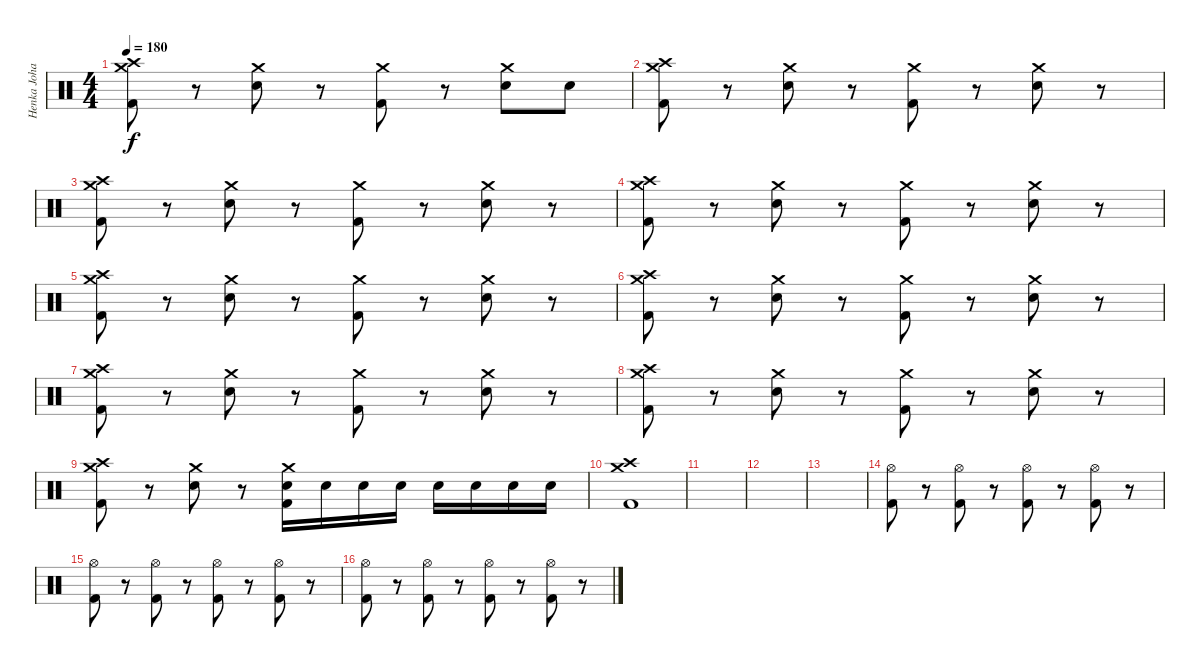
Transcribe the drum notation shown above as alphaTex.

\track ("Henka Johansson" "Henka Joha") {instrument percussion}
\staff {score}
\articulation defaults
\ts (4 4)
\tempo 180
\clef neutral
\ks c
("Crash medium (hit)" "Crash high (hit)" "Kick (hit) 2").8{dy f} r.8 ("Crash medium (hit)" "Snare (hit) 2").8 r.8 ("Crash medium (hit)" "Kick (hit) 2").8 r.8 ("Crash medium (hit)" "Snare (hit) 2").8 "Snare (hit) 2".8 |
("Crash medium (hit)" "Crash high (hit)" "Kick (hit) 2").8 r.8 ("Crash medium (hit)" "Snare (hit) 2").8 r.8 ("Crash medium (hit)" "Kick (hit) 2").8 r.8 ("Crash medium (hit)" "Snare (hit) 2").8 r.8 |
("Crash medium (hit)" "Crash high (hit)" "Kick (hit) 2").8 r.8 ("Crash medium (hit)" "Snare (hit) 2").8 r.8 ("Crash medium (hit)" "Kick (hit) 2").8 r.8 ("Crash medium (hit)" "Snare (hit) 2").8 r.8 |
("Crash medium (hit)" "Crash high (hit)" "Kick (hit) 2").8 r.8 ("Crash medium (hit)" "Snare (hit) 2").8 r.8 ("Crash medium (hit)" "Kick (hit) 2").8 r.8 ("Crash medium (hit)" "Snare (hit) 2").8 r.8 |
("Crash medium (hit)" "Crash high (hit)" "Kick (hit) 2").8 r.8 ("Crash medium (hit)" "Snare (hit) 2").8 r.8 ("Crash medium (hit)" "Kick (hit) 2").8 r.8 ("Crash medium (hit)" "Snare (hit) 2").8 r.8 |
("Crash medium (hit)" "Crash high (hit)" "Kick (hit) 2").8 r.8 ("Crash medium (hit)" "Snare (hit) 2").8 r.8 ("Crash medium (hit)" "Kick (hit) 2").8 r.8 ("Crash medium (hit)" "Snare (hit) 2").8 r.8 |
("Crash medium (hit)" "Crash high (hit)" "Kick (hit) 2").8 r.8 ("Crash medium (hit)" "Snare (hit) 2").8 r.8 ("Crash medium (hit)" "Kick (hit) 2").8 r.8 ("Crash medium (hit)" "Snare (hit) 2").8 r.8 |
("Crash medium (hit)" "Crash high (hit)" "Kick (hit) 2").8 r.8 ("Crash medium (hit)" "Snare (hit) 2").8 r.8 ("Crash medium (hit)" "Kick (hit) 2").8 r.8 ("Crash medium (hit)" "Snare (hit) 2").8 r.8 |
("Crash medium (hit)" "Crash high (hit)" "Kick (hit) 2").8 r.8 ("Crash medium (hit)" "Snare (hit) 2").8 r.8 ("Crash medium (hit)" "Snare (hit) 2" "Kick (hit) 2").16 "Snare (hit) 2".16 "Snare (hit) 2".16 "Snare (hit) 2".16 "Snare (hit) 2".16 "Snare (hit) 2".16 "Snare (hit) 2".16 "Snare (hit) 2".16 |
("Crash medium (hit)" "Crash high (hit)" "Kick (hit) 2").1 |
|
|
|
("Hi-Hat (open)" "Kick (hit) 2").8 r.8 ("Hi-Hat (open)" "Kick (hit) 2").8 r.8 ("Hi-Hat (open)" "Kick (hit) 2").8 r.8 ("Hi-Hat (open)" "Kick (hit) 2").8 r.8 |
("Hi-Hat (open)" "Kick (hit) 2").8 r.8 ("Hi-Hat (open)" "Kick (hit) 2").8 r.8 ("Hi-Hat (open)" "Kick (hit) 2").8 r.8 ("Hi-Hat (open)" "Kick (hit) 2").8 r.8 |
("Hi-Hat (open)" "Kick (hit) 2").8 r.8 ("Hi-Hat (open)" "Kick (hit) 2").8 r.8 ("Hi-Hat (open)" "Kick (hit) 2").8 r.8 ("Hi-Hat (open)" "Kick (hit) 2").8 r.8
